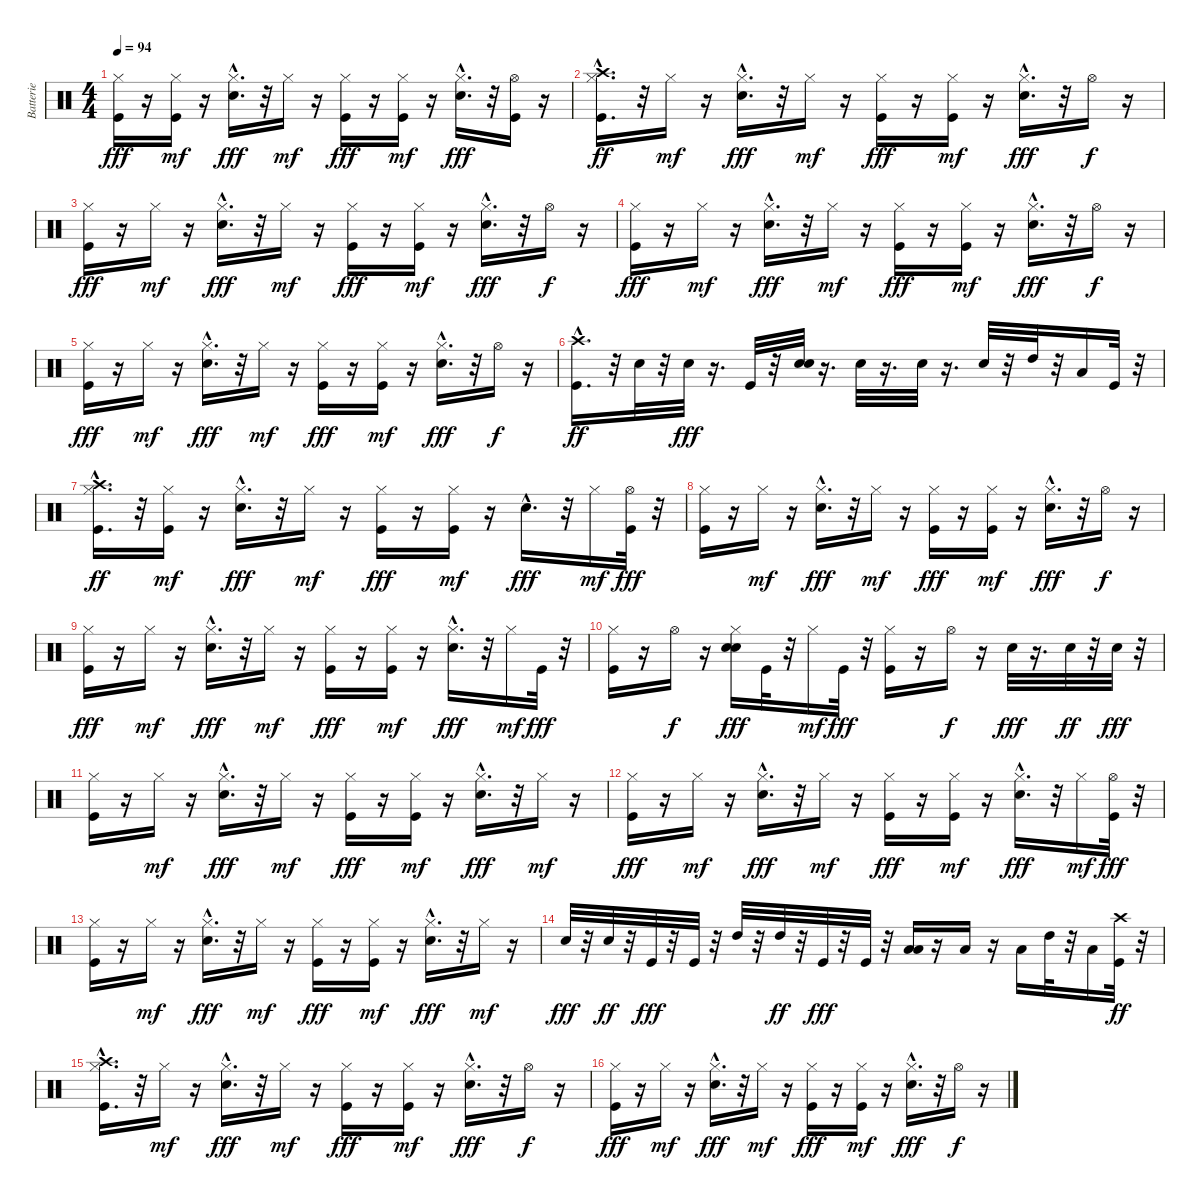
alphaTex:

\track ("Batterie" "Batterie") {instrument percussion}
\staff {score}
\articulation defaults
\ts (4 4)
\tempo 94
\clef neutral
\ks c
("Kick (hit)" "Hi-Hat (closed)").16{dy fff} r.16 ("Kick (hit)" "Hi-Hat (closed)").16{dy mf} r.16 ("Snare (hit) 2"{hac} "Hi-Hat (closed)").16{d dy fff} r.32 "Hi-Hat (closed)".16{dy mf} r.16 ("Kick (hit)" "Hi-Hat (closed)").16{dy fff} r.16 ("Kick (hit)" "Hi-Hat (closed)").16{dy mf} r.16 ("Snare (hit) 2"{hac} "Hi-Hat (closed)").16{d dy fff} r.32 ("Kick (hit)" "Hi-Hat (open)").16 r.16 |
("Kick (hit)" "Hi-Hat (closed)" "Crash high (hit)"{hac}).16{d dy ff} r.32 "Hi-Hat (closed)".16{dy mf} r.16 ("Snare (hit) 2"{hac} "Hi-Hat (closed)").16{d dy fff} r.32 "Hi-Hat (closed)".16{dy mf} r.16 ("Kick (hit)" "Hi-Hat (closed)").16{dy fff} r.16 ("Kick (hit)" "Hi-Hat (closed)").16{dy mf} r.16 ("Snare (hit) 2"{hac} "Hi-Hat (closed)").16{d dy fff} r.32 "Hi-Hat (open)".16{dy f} r.16 |
("Kick (hit)" "Hi-Hat (closed)").16{dy fff} r.16 "Hi-Hat (closed)".16{dy mf} r.16 ("Snare (hit) 2"{hac} "Hi-Hat (closed)").16{d dy fff} r.32 "Hi-Hat (closed)".16{dy mf} r.16 ("Kick (hit)" "Hi-Hat (closed)").16{dy fff} r.16 ("Kick (hit)" "Hi-Hat (closed)").16{dy mf} r.16 ("Snare (hit) 2"{hac} "Hi-Hat (closed)").16{d dy fff} r.32 "Hi-Hat (open)".16{dy f} r.16 |
("Kick (hit)" "Hi-Hat (closed)").16{dy fff} r.16 "Hi-Hat (closed)".16{dy mf} r.16 ("Snare (hit) 2"{hac} "Hi-Hat (closed)").16{d dy fff} r.32 "Hi-Hat (closed)".16{dy mf} r.16 ("Kick (hit)" "Hi-Hat (closed)").16{dy fff} r.16 ("Kick (hit)" "Hi-Hat (closed)").16{dy mf} r.16 ("Snare (hit) 2"{hac} "Hi-Hat (closed)").16{d dy fff} r.32 "Hi-Hat (open)".16{dy f} r.16 |
("Kick (hit)" "Hi-Hat (closed)").16{dy fff} r.16 "Hi-Hat (closed)".16{dy mf} r.16 ("Snare (hit) 2"{hac} "Hi-Hat (closed)").16{d dy fff} r.32 "Hi-Hat (closed)".16{dy mf} r.16 ("Kick (hit)" "Hi-Hat (closed)").16{dy fff} r.16 ("Kick (hit)" "Hi-Hat (closed)").16{dy mf} r.16 ("Snare (hit) 2"{hac} "Hi-Hat (closed)").16{d dy fff} r.32 "Hi-Hat (open)".16{dy f} r.16 |
("Kick (hit)" "Crash high (hit)"{hac}).16{d dy ff} r.32 "Snare (hit) 2".32 r.32 "Snare (hit) 2".32{dy fff} r.16{d} "Kick (hit)".32 r.32 ("Snare (hit) 2" "Snare (hit) 2").32 r.16{d} "Snare (hit) 2".32 r.16{d} "Snare (hit) 2".32 r.16{d} "Snare (hit) 2".32 r.32 "High Tom (hit)".32 r.32 "Low Tom (hit)".16 "Kick (hit)".32 r.32 |
("Kick (hit)" "Hi-Hat (closed)" "Crash high (hit)"{hac}).16{d dy ff} r.32 ("Kick (hit)" "Hi-Hat (closed)").16{dy mf} r.16 ("Snare (hit) 2"{hac} "Hi-Hat (closed)").16{d dy fff} r.32 "Hi-Hat (closed)".16{dy mf} r.16 ("Kick (hit)" "Hi-Hat (closed)").16{dy fff} r.16 ("Kick (hit)" "Hi-Hat (closed)").16{dy mf} r.16 "Snare (hit) 2"{hac}.16{d dy fff} r.32 "Hi-Hat (closed)".16{dy mf} ("Kick (hit)" "Hi-Hat (open)").32{dy fff} r.32 |
("Kick (hit)" "Hi-Hat (closed)").16 r.16 "Hi-Hat (closed)".16{dy mf} r.16 ("Snare (hit) 2"{hac} "Hi-Hat (closed)").16{d dy fff} r.32 "Hi-Hat (closed)".16{dy mf} r.16 ("Kick (hit)" "Hi-Hat (closed)").16{dy fff} r.16 ("Kick (hit)" "Hi-Hat (closed)").16{dy mf} r.16 ("Snare (hit) 2"{hac} "Hi-Hat (closed)").16{d dy fff} r.32 "Hi-Hat (open)".16{dy f} r.16 |
("Kick (hit)" "Hi-Hat (closed)").16{dy fff} r.16 "Hi-Hat (closed)".16{dy mf} r.16 ("Snare (hit) 2"{hac} "Hi-Hat (closed)").16{d dy fff} r.32 "Hi-Hat (closed)".16{dy mf} r.16 ("Kick (hit)" "Hi-Hat (closed)").16{dy fff} r.16 ("Kick (hit)" "Hi-Hat (closed)").16{dy mf} r.16 ("Snare (hit) 2"{hac} "Hi-Hat (closed)").16{d dy fff} r.32 "Hi-Hat (closed)".16{dy mf} "Kick (hit)".32{dy fff} r.32 |
("Kick (hit)" "Hi-Hat (closed)").16 r.16 "Hi-Hat (open)".16{dy f} r.16 ("Snare (hit) 2" "Hi-Hat (closed)" "Snare (hit) 2").16{dy fff} "Kick (hit)".32 r.32 "Hi-Hat (closed)".16{dy mf} "Kick (hit)".32{dy fff} r.32 ("Kick (hit)" "Hi-Hat (closed)").16 r.16 "Hi-Hat (open)".16{dy f} r.16 "Snare (hit) 2".32{dy fff} r.16{d} "Snare (hit) 2".32{dy ff} r.32 "Snare (hit) 2".32{dy fff} r.32 |
("Kick (hit)" "Hi-Hat (closed)").16 r.16 "Hi-Hat (closed)".16{dy mf} r.16 ("Snare (hit) 2"{hac} "Hi-Hat (closed)").16{d dy fff} r.32 "Hi-Hat (closed)".16{dy mf} r.16 ("Kick (hit)" "Hi-Hat (closed)").16{dy fff} r.16 ("Kick (hit)" "Hi-Hat (closed)").16{dy mf} r.16 ("Snare (hit) 2"{hac} "Hi-Hat (closed)").16{d dy fff} r.32 "Hi-Hat (closed)".16{dy mf} r.16 |
("Kick (hit)" "Hi-Hat (closed)").16{dy fff} r.16 "Hi-Hat (closed)".16{dy mf} r.16 ("Snare (hit) 2"{hac} "Hi-Hat (closed)").16{d dy fff} r.32 "Hi-Hat (closed)".16{dy mf} r.16 ("Kick (hit)" "Hi-Hat (closed)").16{dy fff} r.16 ("Kick (hit)" "Hi-Hat (closed)").16{dy mf} r.16 ("Snare (hit) 2"{hac} "Hi-Hat (closed)").16{d dy fff} r.32 "Hi-Hat (closed)".16{dy mf} ("Kick (hit)" "Hi-Hat (open)").32{dy fff} r.32 |
("Kick (hit)" "Hi-Hat (closed)").16 r.16 "Hi-Hat (closed)".16{dy mf} r.16 ("Snare (hit) 2"{hac} "Hi-Hat (closed)").16{d dy fff} r.32 "Hi-Hat (closed)".16{dy mf} r.16 ("Kick (hit)" "Hi-Hat (closed)").16{dy fff} r.16 ("Kick (hit)" "Hi-Hat (closed)").16{dy mf} r.16 ("Snare (hit) 2"{hac} "Hi-Hat (closed)").16{d dy fff} r.32 "Hi-Hat (closed)".16{dy mf} r.16 |
"Snare (hit) 2".32{dy fff} r.32 "Snare (hit) 2".32{dy ff} r.32 "Kick (hit)".32{dy fff} r.32 "Kick (hit)".32 r.32 "High Tom (hit)".32 r.32 "High Tom (hit)".32{dy ff} r.32 "Kick (hit)".32{dy fff} r.32 "Kick (hit)".32 r.32 ("Low Tom (hit)" "Low Tom (hit)").16 r.16 "Low Tom (hit)".16 r.16 "Low Tom (hit)".16 "High Tom (hit)".32 r.32 "Low Floor Tom (hit)".16 ("Kick (hit)" "Crash high (hit)").32{dy ff} r.32 |
("Kick (hit)" "Hi-Hat (closed)" "Crash high (hit)"{hac}).16{d} r.32 "Hi-Hat (closed)".16{dy mf} r.16 ("Snare (hit) 2"{hac} "Hi-Hat (closed)").16{d dy fff} r.32 "Hi-Hat (closed)".16{dy mf} r.16 ("Kick (hit)" "Hi-Hat (closed)").16{dy fff} r.16 ("Kick (hit)" "Hi-Hat (closed)").16{dy mf} r.16 ("Snare (hit) 2"{hac} "Hi-Hat (closed)").16{d dy fff} r.32 "Hi-Hat (open)".16{dy f} r.16 |
("Kick (hit)" "Hi-Hat (closed)").16{dy fff} r.16 "Hi-Hat (closed)".16{dy mf} r.16 ("Snare (hit) 2"{hac} "Hi-Hat (closed)").16{d dy fff} r.32 "Hi-Hat (closed)".16{dy mf} r.16 ("Kick (hit)" "Hi-Hat (closed)").16{dy fff} r.16 ("Kick (hit)" "Hi-Hat (closed)").16{dy mf} r.16 ("Snare (hit) 2"{hac} "Hi-Hat (closed)").16{d dy fff} r.32 "Hi-Hat (open)".16{dy f} r.16
